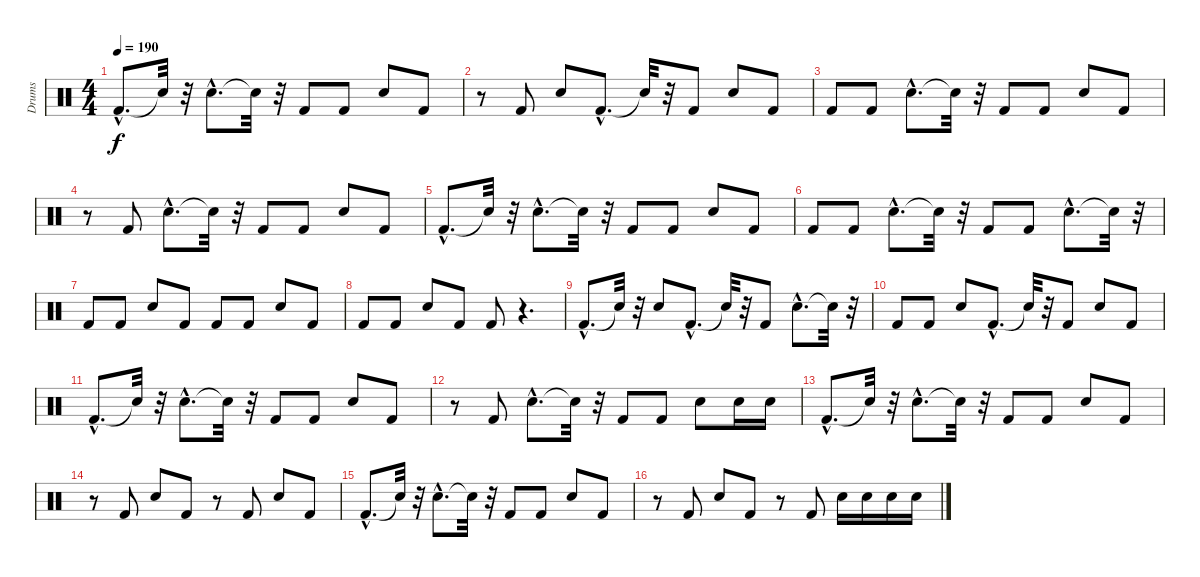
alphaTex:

\track ("Drums" "Drums") {instrument percussion}
\staff {score}
\articulation defaults
\ts (4 4)
\tempo 190
\clef neutral
\ks c "Kick (hit) 2"{hac}.8{d dy f} "Snare (hit)"{t}.32
r.32 "Electric Snare (hit)"{hac}.8{d} "Snare (hit)"{t}.32 r.32 "Kick (hit) 2".8 "Kick (hit) 2".8 "Electric Snare (hit)".8 "Kick (hit) 2".8 |
r.8 "Kick (hit) 2".8 "Electric Snare (hit)".8 "Kick (hit) 2"{hac}.8{d} "Snare (hit)"{t}.32 r.32 "Kick (hit) 2".8 "Electric Snare (hit)".8 "Kick (hit) 2".8 |
"Kick (hit) 2".8 "Kick (hit) 2".8 "Electric Snare (hit)"{hac}.8{d} "Snare (hit)"{t}.32 r.32 "Kick (hit) 2".8 "Kick (hit) 2".8 "Electric Snare (hit)".8 "Kick (hit) 2".8 |
r.8 "Kick (hit) 2".8 "Electric Snare (hit)"{hac}.8{d} "Snare (hit)"{t}.32 r.32 "Kick (hit) 2".8 "Kick (hit) 2".8 "Electric Snare (hit)".8 "Kick (hit) 2".8 |
"Kick (hit) 2"{hac}.8{d} "Snare (hit)"{t}.32 r.32 "Electric Snare (hit)"{hac}.8{d} "Snare (hit)"{t}.32 r.32 "Kick (hit) 2".8 "Kick (hit) 2".8 "Electric Snare (hit)".8 "Kick (hit) 2".8 |
"Kick (hit) 2".8 "Kick (hit) 2".8 "Electric Snare (hit)"{hac}.8{d} "Snare (hit)"{t}.32 r.32 "Kick (hit) 2".8 "Kick (hit) 2".8 "Electric Snare (hit)"{hac}.8{d} "Snare (hit)"{t}.32 r.32 |
"Kick (hit) 2".8 "Kick (hit) 2".8 "Electric Snare (hit)".8 "Kick (hit) 2".8 "Kick (hit) 2".8 "Kick (hit) 2".8 "Electric Snare (hit)".8 "Kick (hit) 2".8 |
"Kick (hit) 2".8 "Kick (hit) 2".8 "Electric Snare (hit)".8 "Kick (hit) 2".8 "Kick (hit) 2".8 r.4{d} |
"Kick (hit) 2"{hac}.8{d} "Snare (hit)"{t}.32 r.32 "Electric Snare (hit)".8 "Kick (hit) 2"{hac}.8{d} "Snare (hit)"{t}.32 r.32 "Kick (hit) 2".8 "Electric Snare (hit)"{hac}.8{d} "Snare (hit)"{t}.32 r.32 |
"Kick (hit) 2".8 "Kick (hit) 2".8 "Electric Snare (hit)".8 "Kick (hit) 2"{hac}.8{d} "Snare (hit)"{t}.32 r.32 "Kick (hit) 2".8 "Electric Snare (hit)".8 "Kick (hit) 2".8 |
"Kick (hit) 2"{hac}.8{d} "Snare (hit)"{t}.32 r.32 "Electric Snare (hit)"{hac}.8{d} "Snare (hit)"{t}.32 r.32 "Kick (hit) 2".8 "Kick (hit) 2".8 "Electric Snare (hit)".8 "Kick (hit) 2".8 |
r.8 "Kick (hit) 2".8 "Electric Snare (hit)"{hac}.8{d} "Snare (hit)"{t}.32 r.32 "Kick (hit) 2".8 "Kick (hit) 2".8 "Electric Snare (hit)".8 "Electric Snare (hit)".16 "Electric Snare (hit)".16 |
"Kick (hit) 2"{hac}.8{d} "Snare (hit)"{t}.32 r.32 "Electric Snare (hit)"{hac}.8{d} "Snare (hit)"{t}.32 r.32 "Kick (hit) 2".8 "Kick (hit) 2".8 "Electric Snare (hit)".8 "Kick (hit) 2".8 |
r.8 "Kick (hit) 2".8 "Electric Snare (hit)".8 "Kick (hit) 2".8 r.8 "Kick (hit) 2".8 "Electric Snare (hit)".8 "Kick (hit) 2".8 |
"Kick (hit) 2"{hac}.8{d} "Snare (hit)"{t}.32 r.32 "Electric Snare (hit)"{hac}.8{d} "Snare (hit)"{t}.32 r.32 "Kick (hit) 2".8 "Kick (hit) 2".8 "Electric Snare (hit)".8 "Kick (hit) 2".8 |
r.8 "Kick (hit) 2".8 "Electric Snare (hit)".8 "Kick (hit) 2".8 r.8 "Kick (hit) 2".8 "Electric Snare (hit)".16 "Electric Snare (hit)".16 "Electric Snare (hit)".16 "Electric Snare (hit)".16
